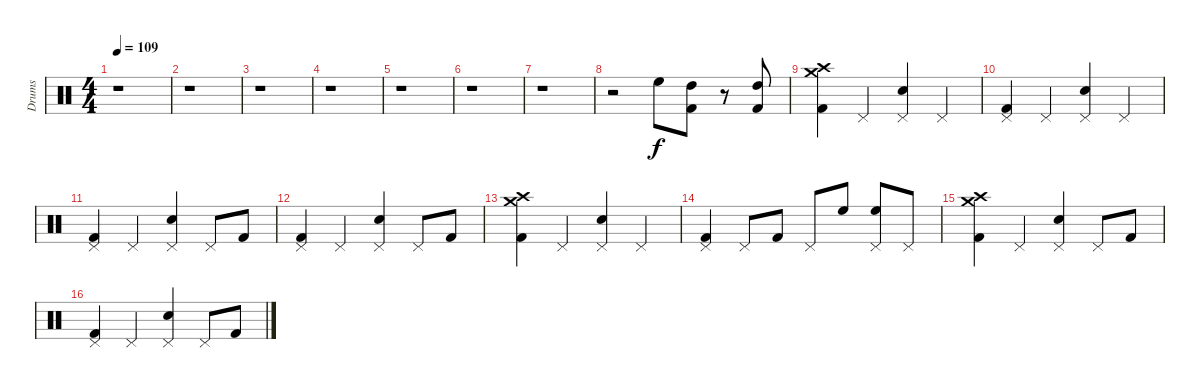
\track ("Drums" "Drums") {instrument percussion}
\staff {score}
\articulation defaults
\ts (4 4)
\tempo 109
\clef neutral
\ks c
r.1{dy f} |
r.1 |
r.1 |
r.1 |
r.1 |
r.1 |
r.1 |
r.2 "High Floor Tom (hit)".8 ("High Tom (hit)" "Kick (hit) 2").8 r.8 ("High Tom (hit)" "Kick (hit) 2").8 |
("Crash high (hit)" "Crash medium (hit)" "Kick (hit) 2").4 "Pedal Hi-Hat (hit)".4 ("Pedal Hi-Hat (hit)" "Electric Snare (hit)").4 "Pedal Hi-Hat (hit)".4 |
("Pedal Hi-Hat (hit)" "Kick (hit) 2").4 "Pedal Hi-Hat (hit)".4 ("Pedal Hi-Hat (hit)" "Electric Snare (hit)").4 "Pedal Hi-Hat (hit)".4 |
("Pedal Hi-Hat (hit)" "Kick (hit) 2").4 "Pedal Hi-Hat (hit)".4 ("Pedal Hi-Hat (hit)" "Electric Snare (hit)").4 "Pedal Hi-Hat (hit)".8 "Kick (hit) 2".8 |
("Pedal Hi-Hat (hit)" "Kick (hit) 2").4 "Pedal Hi-Hat (hit)".4 ("Pedal Hi-Hat (hit)" "Electric Snare (hit)").4 "Pedal Hi-Hat (hit)".8 "Kick (hit) 2".8 |
("Crash high (hit)" "Crash medium (hit)" "Kick (hit) 2").4 "Pedal Hi-Hat (hit)".4 ("Pedal Hi-Hat (hit)" "Electric Snare (hit)").4 "Pedal Hi-Hat (hit)".4 |
("Pedal Hi-Hat (hit)" "Kick (hit) 2").4 "Pedal Hi-Hat (hit)".8 "Kick (hit) 2".8 "Pedal Hi-Hat (hit)".8 "High Floor Tom (hit)".8 ("Pedal Hi-Hat (hit)" "High Floor Tom (hit)").8 "Pedal Hi-Hat (hit)".8 |
("Crash high (hit)" "Crash medium (hit)" "Kick (hit) 2").4 "Pedal Hi-Hat (hit)".4 ("Pedal Hi-Hat (hit)" "Electric Snare (hit)").4 "Pedal Hi-Hat (hit)".8 "Kick (hit) 2".8 |
("Pedal Hi-Hat (hit)" "Kick (hit) 2").4 "Pedal Hi-Hat (hit)".4 ("Pedal Hi-Hat (hit)" "Electric Snare (hit)").4 "Pedal Hi-Hat (hit)".8 "Kick (hit) 2".8
